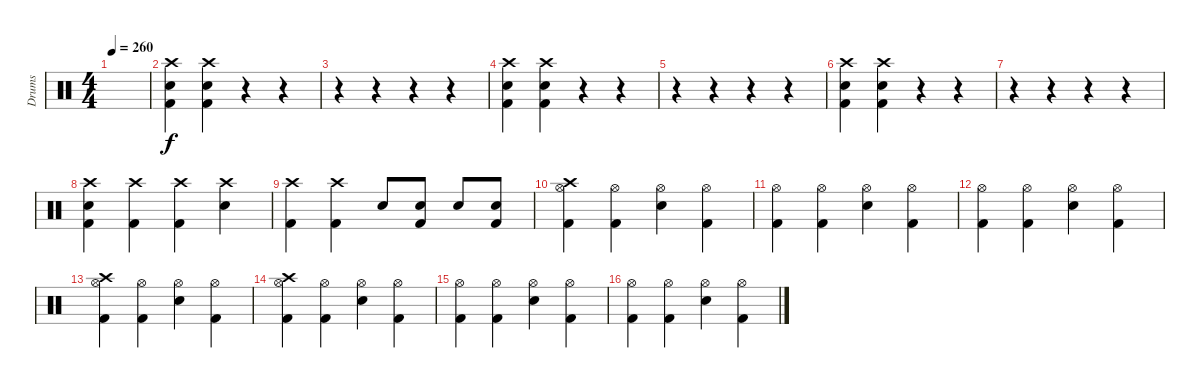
\track ("Drums" "Drums") {instrument percussion bank 2}
\staff {score}
\articulation defaults
\ts (4 4)
\tempo 260
\clef neutral
\ks c
|
("Crash high (hit)" "Kick (hit) 2" "Snare (hit) 2").4 ("Crash high (hit)" "Kick (hit) 2" "Snare (hit) 2").4 r.4 r.4 |
r.4 r.4 r.4 r.4 |
("Crash high (hit)" "Kick (hit) 2" "Snare (hit) 2").4 ("Crash high (hit)" "Kick (hit) 2" "Snare (hit) 2").4 r.4 r.4 |
r.4 r.4 r.4 r.4 |
("Crash high (hit)" "Kick (hit) 2" "Snare (hit) 2").4 ("Crash high (hit)" "Kick (hit) 2" "Snare (hit) 2").4 r.4 r.4 |
r.4 r.4 r.4 r.4 |
("Crash high (hit)" "Kick (hit) 2" "Snare (hit) 2").4 ("Kick (hit) 2" "Crash high (hit)").4 ("Kick (hit) 2" "Crash high (hit)").4 ("Snare (hit) 2" "Crash high (hit)").4 |
("Kick (hit) 2" "Crash high (hit)").4 ("Kick (hit) 2" "Crash high (hit)").4 "Snare (hit) 2".8 ("Snare (hit) 2" "Kick (hit) 2").8 "Snare (hit) 2".8 ("Snare (hit) 2" "Kick (hit) 2").8 |
("Kick (hit) 2" "Hi-Hat (open)" "Crash high (hit)").4 ("Kick (hit) 2" "Hi-Hat (open)").4 ("Snare (hit) 2" "Hi-Hat (open)").4 ("Kick (hit) 2" "Hi-Hat (open)").4 |
("Kick (hit) 2" "Hi-Hat (open)").4 ("Kick (hit) 2" "Hi-Hat (open)").4 ("Snare (hit) 2" "Hi-Hat (open)").4 ("Kick (hit) 2" "Hi-Hat (open)").4 |
("Kick (hit) 2" "Hi-Hat (open)").4 ("Kick (hit) 2" "Hi-Hat (open)").4 ("Snare (hit) 2" "Hi-Hat (open)").4 ("Kick (hit) 2" "Hi-Hat (open)").4 |
("Kick (hit) 2" "Hi-Hat (open)" "Crash high (hit)").4 ("Kick (hit) 2" "Hi-Hat (open)").4 ("Snare (hit) 2" "Hi-Hat (open)").4 ("Kick (hit) 2" "Hi-Hat (open)").4 |
("Kick (hit) 2" "Hi-Hat (open)" "Crash high (hit)").4 ("Kick (hit) 2" "Hi-Hat (open)").4 ("Snare (hit) 2" "Hi-Hat (open)").4 ("Kick (hit) 2" "Hi-Hat (open)").4 |
("Kick (hit) 2" "Hi-Hat (open)").4 ("Kick (hit) 2" "Hi-Hat (open)").4 ("Snare (hit) 2" "Hi-Hat (open)").4 ("Kick (hit) 2" "Hi-Hat (open)").4 |
("Kick (hit) 2" "Hi-Hat (open)").4 ("Kick (hit) 2" "Hi-Hat (open)").4 ("Snare (hit) 2" "Hi-Hat (open)").4 ("Kick (hit) 2" "Hi-Hat (open)").4
